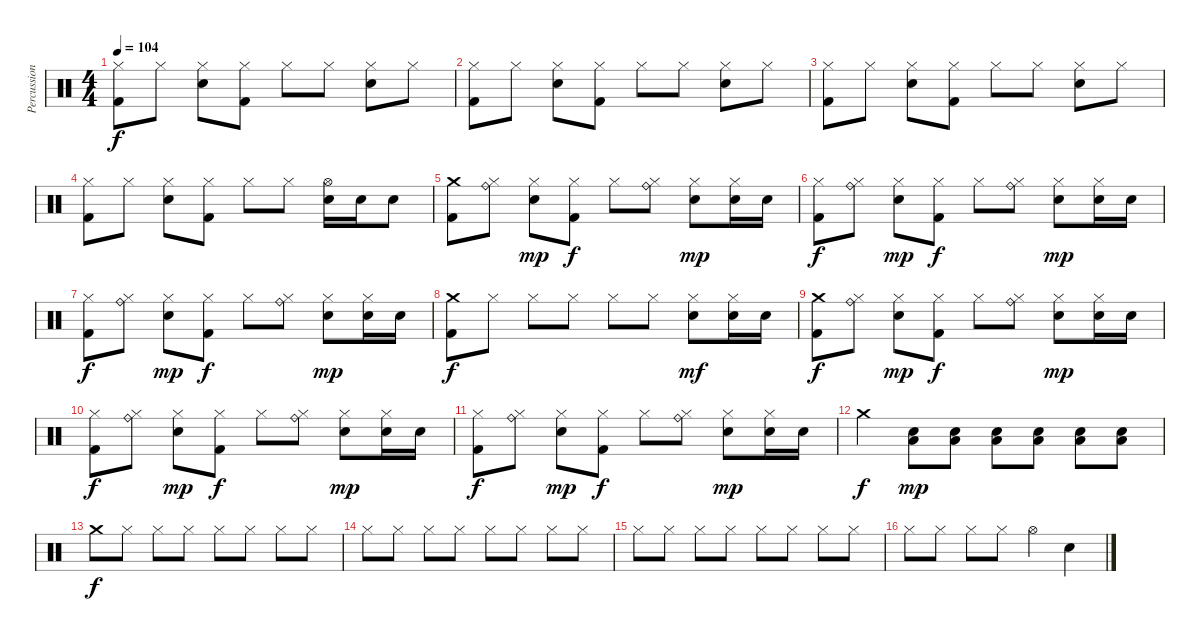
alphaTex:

\track ("Percussion" "Percussion") {instrument percussion}
\staff {score}
\articulation defaults
\ts (4 4)
\tempo 104
\clef neutral
\ks c
("Hi-Hat (closed)" "Kick (hit) 2").8{dy f} "Hi-Hat (closed)".8 ("Hi-Hat (closed)" "Electric Snare (hit)").8 ("Hi-Hat (closed)" "Kick (hit) 2").8 "Hi-Hat (closed)".8 "Hi-Hat (closed)".8 ("Hi-Hat (closed)" "Electric Snare (hit)").8 "Hi-Hat (closed)".8 |
("Hi-Hat (closed)" "Kick (hit) 2").8 "Hi-Hat (closed)".8 ("Hi-Hat (closed)" "Electric Snare (hit)").8 ("Hi-Hat (closed)" "Kick (hit) 2").8 "Hi-Hat (closed)".8 "Hi-Hat (closed)".8 ("Hi-Hat (closed)" "Electric Snare (hit)").8 "Hi-Hat (closed)".8 |
("Hi-Hat (closed)" "Kick (hit) 2").8 "Hi-Hat (closed)".8 ("Hi-Hat (closed)" "Electric Snare (hit)").8 ("Hi-Hat (closed)" "Kick (hit) 2").8 "Hi-Hat (closed)".8 "Hi-Hat (closed)".8 ("Hi-Hat (closed)" "Electric Snare (hit)").8 "Hi-Hat (closed)".8 |
("Hi-Hat (closed)" "Kick (hit) 2").8 "Hi-Hat (closed)".8 ("Hi-Hat (closed)" "Electric Snare (hit)").8 ("Hi-Hat (closed)" "Kick (hit) 2").8 "Hi-Hat (closed)".8 "Hi-Hat (closed)".8 ("Hi-Hat (open)" "Electric Snare (hit)").16 "Electric Snare (hit)".16 "Electric Snare (hit)".8 |
("Crash medium (hit)" "Kick (hit) 2").8 ("Hi-Hat (closed)" "Ride (bell)").8 ("Hi-Hat (closed)" "Electric Snare (hit)").8{dy mp} ("Hi-Hat (closed)" "Kick (hit) 2").8{dy f} "Hi-Hat (closed)".8 ("Hi-Hat (closed)" "Ride (bell)").8 ("Hi-Hat (closed)" "Electric Snare (hit)").8{dy mp} ("Hi-Hat (closed)" "Electric Snare (hit)").16 "Electric Snare (hit)".16 |
("Hi-Hat (closed)" "Kick (hit) 2").8{dy f} ("Hi-Hat (closed)" "Ride (bell)").8 ("Hi-Hat (closed)" "Electric Snare (hit)").8{dy mp} ("Hi-Hat (closed)" "Kick (hit) 2").8{dy f} "Hi-Hat (closed)".8 ("Hi-Hat (closed)" "Ride (bell)").8 ("Hi-Hat (closed)" "Electric Snare (hit)").8{dy mp} ("Hi-Hat (closed)" "Electric Snare (hit)").16 "Electric Snare (hit)".16 |
("Hi-Hat (closed)" "Kick (hit) 2").8{dy f} ("Hi-Hat (closed)" "Ride (bell)").8 ("Hi-Hat (closed)" "Electric Snare (hit)").8{dy mp} ("Hi-Hat (closed)" "Kick (hit) 2").8{dy f} "Hi-Hat (closed)".8 ("Hi-Hat (closed)" "Ride (bell)").8 ("Hi-Hat (closed)" "Electric Snare (hit)").8{dy mp} ("Hi-Hat (closed)" "Electric Snare (hit)").16 "Electric Snare (hit)".16 |
("Crash medium (hit)" "Kick (hit) 2").8{dy f} "Hi-Hat (closed)".8 "Hi-Hat (closed)".8 "Hi-Hat (closed)".8 "Hi-Hat (closed)".8 "Hi-Hat (closed)".8 ("Hi-Hat (closed)" "Electric Snare (hit)").8{dy mf} ("Hi-Hat (closed)" "Electric Snare (hit)").16 "Electric Snare (hit)".16 |
("Crash medium (hit)" "Kick (hit) 2").8{dy f} ("Hi-Hat (closed)" "Ride (bell)").8 ("Hi-Hat (closed)" "Electric Snare (hit)").8{dy mp} ("Hi-Hat (closed)" "Kick (hit) 2").8{dy f} "Hi-Hat (closed)".8 ("Hi-Hat (closed)" "Ride (bell)").8 ("Hi-Hat (closed)" "Electric Snare (hit)").8{dy mp} ("Hi-Hat (closed)" "Electric Snare (hit)").16 "Electric Snare (hit)".16 |
("Hi-Hat (closed)" "Kick (hit) 2").8{dy f} ("Hi-Hat (closed)" "Ride (bell)").8 ("Hi-Hat (closed)" "Electric Snare (hit)").8{dy mp} ("Hi-Hat (closed)" "Kick (hit) 2").8{dy f} "Hi-Hat (closed)".8 ("Hi-Hat (closed)" "Ride (bell)").8 ("Hi-Hat (closed)" "Electric Snare (hit)").8{dy mp} ("Hi-Hat (closed)" "Electric Snare (hit)").16 "Electric Snare (hit)".16 |
("Hi-Hat (closed)" "Kick (hit) 2").8{dy f} ("Hi-Hat (closed)" "Ride (bell)").8 ("Hi-Hat (closed)" "Electric Snare (hit)").8{dy mp} ("Hi-Hat (closed)" "Kick (hit) 2").8{dy f} "Hi-Hat (closed)".8 ("Hi-Hat (closed)" "Ride (bell)").8 ("Hi-Hat (closed)" "Electric Snare (hit)").8{dy mp} ("Hi-Hat (closed)" "Electric Snare (hit)").16 "Electric Snare (hit)".16 |
"Crash medium (hit)".4{dy f} ("Electric Snare (hit)" "Low Floor Tom (hit)").8{dy mp} ("Electric Snare (hit)" "Low Floor Tom (hit)").8 ("Electric Snare (hit)" "Low Floor Tom (hit)").8 ("Electric Snare (hit)" "Low Floor Tom (hit)").8 ("Electric Snare (hit)" "Low Floor Tom (hit)").8 ("Electric Snare (hit)" "Low Floor Tom (hit)").8 |
"Crash medium (hit)".8{dy f} "Hi-Hat (closed)".8 "Hi-Hat (closed)".8 "Hi-Hat (closed)".8 "Hi-Hat (closed)".8 "Hi-Hat (closed)".8 "Hi-Hat (closed)".8 "Hi-Hat (closed)".8 |
"Hi-Hat (closed)".8 "Hi-Hat (closed)".8 "Hi-Hat (closed)".8 "Hi-Hat (closed)".8 "Hi-Hat (closed)".8 "Hi-Hat (closed)".8 "Hi-Hat (closed)".8 "Hi-Hat (closed)".8 |
"Hi-Hat (closed)".8 "Hi-Hat (closed)".8 "Hi-Hat (closed)".8 "Hi-Hat (closed)".8 "Hi-Hat (closed)".8 "Hi-Hat (closed)".8 "Hi-Hat (closed)".8 "Hi-Hat (closed)".8 |
"Hi-Hat (closed)".8 "Hi-Hat (closed)".8 "Hi-Hat (closed)".8 "Hi-Hat (closed)".8 "Hi-Hat (open)".4 "Electric Snare (hit)".4
